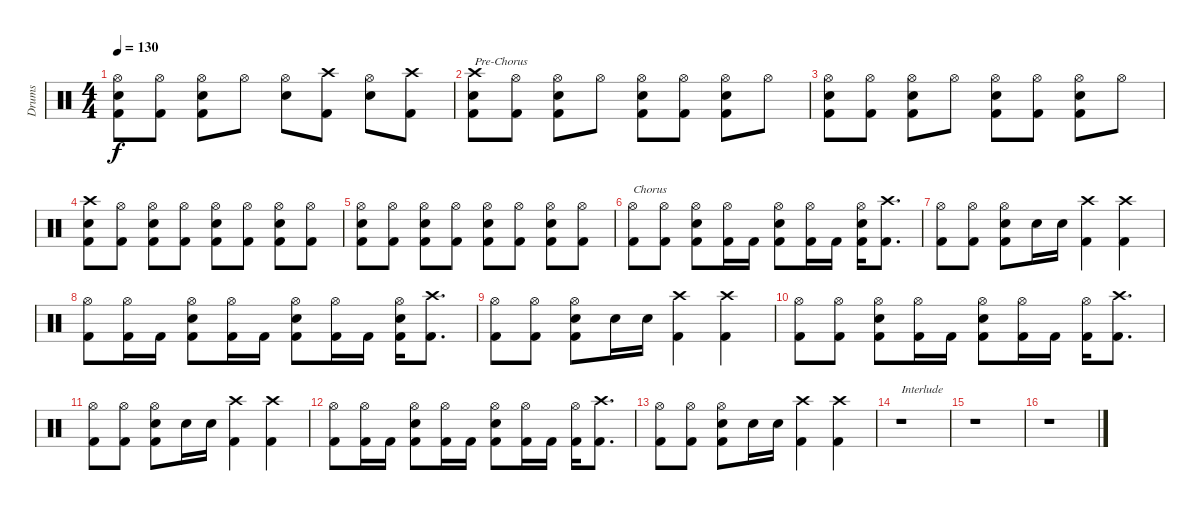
\track ("Drums" "Drums") {instrument percussion}
\staff {score}
\articulation defaults
\ts (4 4)
\tempo 130
\clef neutral
\ks c
("Hi-Hat (open)" "Snare (hit) 2" "Kick (hit) 2").8{dy f} ("Hi-Hat (open)" "Kick (hit) 2").8 ("Hi-Hat (open)" "Snare (hit) 2" "Kick (hit) 2").8 "Hi-Hat (open)".8 ("Hi-Hat (open)" "Snare (hit) 2").8 ("Crash high (hit)" "Kick (hit) 2").8 ("Hi-Hat (open)" "Snare (hit) 2").8 ("Crash high (hit)" "Kick (hit) 2").8 |
("Crash high (hit)" "Snare (hit) 2" "Kick (hit) 2").8{txt "Pre-Chorus"} ("Hi-Hat (open)" "Kick (hit) 2").8 ("Hi-Hat (open)" "Snare (hit) 2" "Kick (hit) 2").8 "Hi-Hat (open)".8 ("Hi-Hat (open)" "Snare (hit) 2" "Kick (hit) 2").8 ("Hi-Hat (open)" "Kick (hit) 2").8 ("Hi-Hat (open)" "Snare (hit) 2" "Kick (hit) 2").8 "Hi-Hat (open)".8 |
("Hi-Hat (open)" "Snare (hit) 2" "Kick (hit) 2").8 ("Hi-Hat (open)" "Kick (hit) 2").8 ("Hi-Hat (open)" "Snare (hit) 2" "Kick (hit) 2").8 "Hi-Hat (open)".8 ("Hi-Hat (open)" "Snare (hit) 2" "Kick (hit) 2").8 ("Hi-Hat (open)" "Kick (hit) 2").8 ("Hi-Hat (open)" "Snare (hit) 2" "Kick (hit) 2").8 "Hi-Hat (open)".8 |
("Crash high (hit)" "Snare (hit) 2" "Kick (hit) 2").8 ("Hi-Hat (open)" "Kick (hit) 2").8 ("Hi-Hat (open)" "Snare (hit) 2" "Kick (hit) 2").8 ("Hi-Hat (open)" "Kick (hit) 2").8 ("Hi-Hat (open)" "Snare (hit) 2" "Kick (hit) 2").8 ("Hi-Hat (open)" "Kick (hit) 2").8 ("Hi-Hat (open)" "Snare (hit) 2" "Kick (hit) 2").8 ("Hi-Hat (open)" "Kick (hit) 2").8 |
("Hi-Hat (open)" "Snare (hit) 2" "Kick (hit) 2").8 ("Hi-Hat (open)" "Kick (hit) 2").8 ("Hi-Hat (open)" "Snare (hit) 2" "Kick (hit) 2").8 ("Hi-Hat (open)" "Kick (hit) 2").8 ("Hi-Hat (open)" "Snare (hit) 2" "Kick (hit) 2").8 ("Hi-Hat (open)" "Kick (hit) 2").8 ("Hi-Hat (open)" "Snare (hit) 2" "Kick (hit) 2").8 ("Hi-Hat (open)" "Kick (hit) 2").8 |
("Hi-Hat (open)" "Kick (hit) 2").8{txt "Chorus"} ("Hi-Hat (open)" "Kick (hit) 2").8 ("Hi-Hat (open)" "Snare (hit) 2" "Kick (hit) 2").8 ("Hi-Hat (open)" "Kick (hit) 2").16 "Kick (hit) 2".16 ("Hi-Hat (open)" "Snare (hit) 2" "Kick (hit) 2").8 ("Hi-Hat (open)" "Kick (hit) 2").16 "Kick (hit) 2".16 ("Hi-Hat (open)" "Snare (hit) 2" "Kick (hit) 2").16 ("Crash high (hit)" "Kick (hit) 2").8{d} |
("Hi-Hat (open)" "Kick (hit) 2").8 ("Hi-Hat (open)" "Kick (hit) 2").8 ("Hi-Hat (open)" "Snare (hit) 2" "Kick (hit) 2").8 "Snare (hit) 2".16 "Snare (hit) 2".16 ("Crash high (hit)" "Kick (hit) 2").4 ("Crash high (hit)" "Kick (hit) 2").4 |
("Hi-Hat (open)" "Kick (hit) 2").8 ("Hi-Hat (open)" "Kick (hit) 2").16 "Kick (hit) 2".16 ("Hi-Hat (open)" "Snare (hit) 2" "Kick (hit) 2").8 ("Hi-Hat (open)" "Kick (hit) 2").16 "Kick (hit) 2".16 ("Hi-Hat (open)" "Snare (hit) 2" "Kick (hit) 2").8 ("Hi-Hat (open)" "Kick (hit) 2").16 "Kick (hit) 2".16 ("Hi-Hat (open)" "Snare (hit) 2" "Kick (hit) 2").16 ("Crash high (hit)" "Kick (hit) 2").8{d} |
("Hi-Hat (open)" "Kick (hit) 2").8 ("Hi-Hat (open)" "Kick (hit) 2").8 ("Hi-Hat (open)" "Snare (hit) 2" "Kick (hit) 2").8 "Snare (hit) 2".16 "Snare (hit) 2".16 ("Crash high (hit)" "Kick (hit) 2").4 ("Crash high (hit)" "Kick (hit) 2").4 |
("Hi-Hat (open)" "Kick (hit) 2").8 ("Hi-Hat (open)" "Kick (hit) 2").8 ("Hi-Hat (open)" "Snare (hit) 2" "Kick (hit) 2").8 ("Hi-Hat (open)" "Kick (hit) 2").16 "Kick (hit) 2".16 ("Hi-Hat (open)" "Snare (hit) 2" "Kick (hit) 2").8 ("Hi-Hat (open)" "Kick (hit) 2").16 "Kick (hit) 2".16 ("Hi-Hat (open)" "Kick (hit) 2").16 ("Crash high (hit)" "Kick (hit) 2").8{d} |
("Hi-Hat (open)" "Kick (hit) 2").8 ("Hi-Hat (open)" "Kick (hit) 2").8 ("Hi-Hat (open)" "Snare (hit) 2" "Kick (hit) 2").8 "Snare (hit) 2".16 "Snare (hit) 2".16 ("Crash high (hit)" "Kick (hit) 2").4 ("Crash high (hit)" "Kick (hit) 2").4 |
("Hi-Hat (open)" "Kick (hit) 2").8 ("Hi-Hat (open)" "Kick (hit) 2").16 "Kick (hit) 2".16 ("Hi-Hat (open)" "Snare (hit) 2" "Kick (hit) 2").8 ("Hi-Hat (open)" "Kick (hit) 2").16 "Kick (hit) 2".16 ("Hi-Hat (open)" "Snare (hit) 2" "Kick (hit) 2").8 ("Hi-Hat (open)" "Kick (hit) 2").16 "Kick (hit) 2".16 ("Hi-Hat (open)" "Kick (hit) 2").16 ("Crash high (hit)" "Kick (hit) 2").8{d} |
("Hi-Hat (open)" "Kick (hit) 2").8 ("Hi-Hat (open)" "Kick (hit) 2").8 ("Hi-Hat (open)" "Snare (hit) 2" "Kick (hit) 2").8 "Snare (hit) 2".16 "Snare (hit) 2".16 ("Crash high (hit)" "Kick (hit) 2").4 ("Crash high (hit)" "Kick (hit) 2").4 |
r.1{txt "Interlude"} |
r.1 |
r.1
